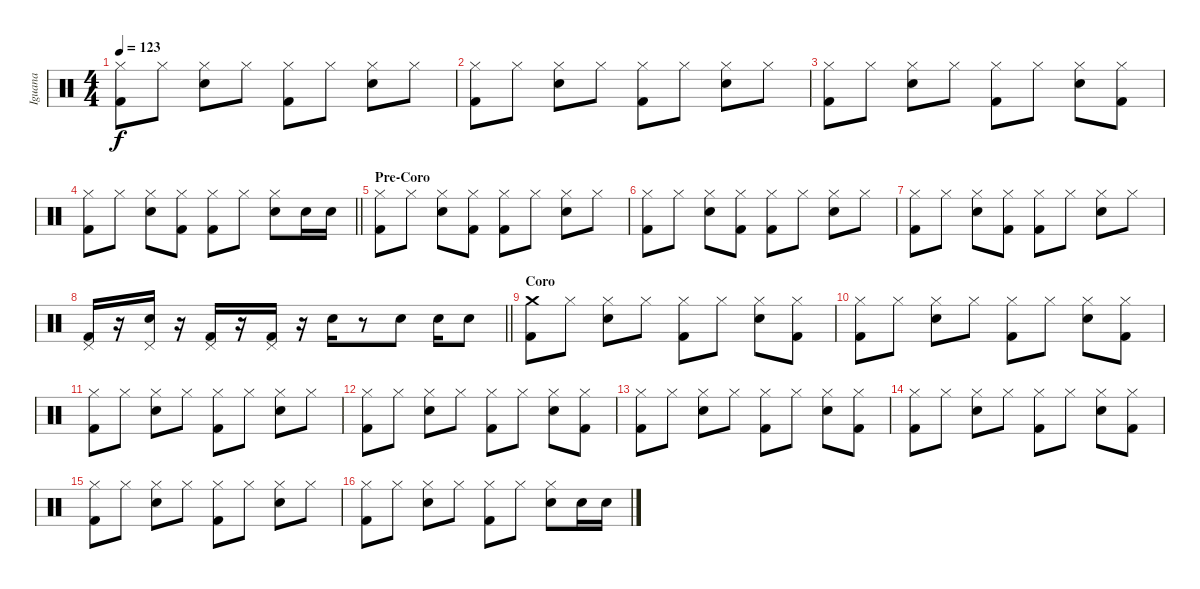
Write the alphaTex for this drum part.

\track ("Iguana" "Iguana") {instrument percussion}
\staff {score}
\articulation defaults
\ts (4 4)
\tempo 123
\clef neutral
\ks c
("Hi-Hat (closed)" "Kick (hit) 2").8{dy f} "Hi-Hat (closed)".8 ("Hi-Hat (closed)" "Snare (hit) 2").8 "Hi-Hat (closed)".8 ("Hi-Hat (closed)" "Kick (hit) 2").8 "Hi-Hat (closed)".8 ("Hi-Hat (closed)" "Snare (hit) 2").8 "Hi-Hat (closed)".8 |
("Hi-Hat (closed)" "Kick (hit) 2").8 "Hi-Hat (closed)".8 ("Hi-Hat (closed)" "Snare (hit) 2").8 "Hi-Hat (closed)".8 ("Hi-Hat (closed)" "Kick (hit) 2").8 "Hi-Hat (closed)".8 ("Hi-Hat (closed)" "Snare (hit) 2").8 "Hi-Hat (closed)".8 |
("Hi-Hat (closed)" "Kick (hit) 2").8 "Hi-Hat (closed)".8 ("Hi-Hat (closed)" "Snare (hit) 2").8 "Hi-Hat (closed)".8 ("Hi-Hat (closed)" "Kick (hit) 2").8 "Hi-Hat (closed)".8 ("Hi-Hat (closed)" "Snare (hit) 2").8 ("Hi-Hat (closed)" "Kick (hit) 2").8 |
\barLineRight lightlight
("Hi-Hat (closed)" "Kick (hit) 2").8 "Hi-Hat (closed)".8 ("Hi-Hat (closed)" "Snare (hit) 2").8 ("Hi-Hat (closed)" "Kick (hit) 2").8 ("Hi-Hat (closed)" "Kick (hit) 2").8 "Hi-Hat (closed)".8 ("Hi-Hat (closed)" "Snare (hit) 2").8 "Snare (hit) 2".16 "Snare (hit) 2".16 |
\section ("" "Pre-Coro")
("Hi-Hat (closed)" "Kick (hit) 2").8 "Hi-Hat (closed)".8 ("Hi-Hat (closed)" "Snare (hit) 2").8 ("Hi-Hat (closed)" "Kick (hit) 2").8 ("Hi-Hat (closed)" "Kick (hit) 2").8 "Hi-Hat (closed)".8 ("Hi-Hat (closed)" "Snare (hit) 2").8 "Hi-Hat (closed)".8 |
("Hi-Hat (closed)" "Kick (hit) 2").8 "Hi-Hat (closed)".8 ("Hi-Hat (closed)" "Snare (hit) 2").8 ("Hi-Hat (closed)" "Kick (hit) 2").8 ("Hi-Hat (closed)" "Kick (hit) 2").8 "Hi-Hat (closed)".8 ("Hi-Hat (closed)" "Snare (hit) 2").8 "Hi-Hat (closed)".8 |
("Hi-Hat (closed)" "Kick (hit) 2").8 "Hi-Hat (closed)".8 ("Hi-Hat (closed)" "Snare (hit) 2").8 ("Hi-Hat (closed)" "Kick (hit) 2").8 ("Hi-Hat (closed)" "Kick (hit) 2").8 "Hi-Hat (closed)".8 ("Hi-Hat (closed)" "Snare (hit) 2").8 "Hi-Hat (closed)".8 |
\barLineRight lightlight
("Pedal Hi-Hat (hit)" "Kick (hit) 2").16 r.16 ("Pedal Hi-Hat (hit)" "Snare (hit) 2").16 r.16 ("Pedal Hi-Hat (hit)" "Kick (hit) 2").16 r.16 ("Pedal Hi-Hat (hit)" "Kick (hit) 2").16 r.16 "Snare (hit) 2".16 r.8 "Snare (hit) 2".8 "Snare (hit) 2".16 "Snare (hit) 2".8 |
\section ("" "Coro")
("Crash medium (hit)" "Kick (hit) 2").8 "Hi-Hat (closed)".8 ("Hi-Hat (closed)" "Snare (hit) 2").8 "Hi-Hat (closed)".8 ("Hi-Hat (closed)" "Kick (hit) 2").8 "Hi-Hat (closed)".8 ("Hi-Hat (closed)" "Snare (hit) 2").8 ("Hi-Hat (closed)" "Kick (hit) 2").8 |
("Hi-Hat (closed)" "Kick (hit) 2").8 "Hi-Hat (closed)".8 ("Hi-Hat (closed)" "Snare (hit) 2").8 "Hi-Hat (closed)".8 ("Hi-Hat (closed)" "Kick (hit) 2").8 "Hi-Hat (closed)".8 ("Hi-Hat (closed)" "Snare (hit) 2").8 ("Hi-Hat (closed)" "Kick (hit) 2").8 |
("Hi-Hat (closed)" "Kick (hit) 2").8 "Hi-Hat (closed)".8 ("Hi-Hat (closed)" "Snare (hit) 2").8 "Hi-Hat (closed)".8 ("Hi-Hat (closed)" "Kick (hit) 2").8 "Hi-Hat (closed)".8 ("Hi-Hat (closed)" "Snare (hit) 2").8 "Hi-Hat (closed)".8 |
("Hi-Hat (closed)" "Kick (hit) 2").8 "Hi-Hat (closed)".8 ("Hi-Hat (closed)" "Snare (hit) 2").8 "Hi-Hat (closed)".8 ("Hi-Hat (closed)" "Kick (hit) 2").8 "Hi-Hat (closed)".8 ("Hi-Hat (closed)" "Snare (hit) 2").8 ("Hi-Hat (closed)" "Kick (hit) 2").8 |
("Hi-Hat (closed)" "Kick (hit) 2").8 "Hi-Hat (closed)".8 ("Hi-Hat (closed)" "Snare (hit) 2").8 "Hi-Hat (closed)".8 ("Hi-Hat (closed)" "Kick (hit) 2").8 "Hi-Hat (closed)".8 ("Hi-Hat (closed)" "Snare (hit) 2").8 ("Hi-Hat (closed)" "Kick (hit) 2").8 |
("Hi-Hat (closed)" "Kick (hit) 2").8 "Hi-Hat (closed)".8 ("Hi-Hat (closed)" "Snare (hit) 2").8 "Hi-Hat (closed)".8 ("Hi-Hat (closed)" "Kick (hit) 2").8 "Hi-Hat (closed)".8 ("Hi-Hat (closed)" "Snare (hit) 2").8 ("Hi-Hat (closed)" "Kick (hit) 2").8 |
("Hi-Hat (closed)" "Kick (hit) 2").8 "Hi-Hat (closed)".8 ("Hi-Hat (closed)" "Snare (hit) 2").8 "Hi-Hat (closed)".8 ("Hi-Hat (closed)" "Kick (hit) 2").8 "Hi-Hat (closed)".8 ("Hi-Hat (closed)" "Snare (hit) 2").8 "Hi-Hat (closed)".8 |
("Hi-Hat (closed)" "Kick (hit) 2").8 "Hi-Hat (closed)".8 ("Hi-Hat (closed)" "Snare (hit) 2").8 "Hi-Hat (closed)".8 ("Hi-Hat (closed)" "Kick (hit) 2").8 "Hi-Hat (closed)".8 ("Hi-Hat (closed)" "Snare (hit) 2").8 "Snare (hit) 2".16 "Snare (hit) 2".16
